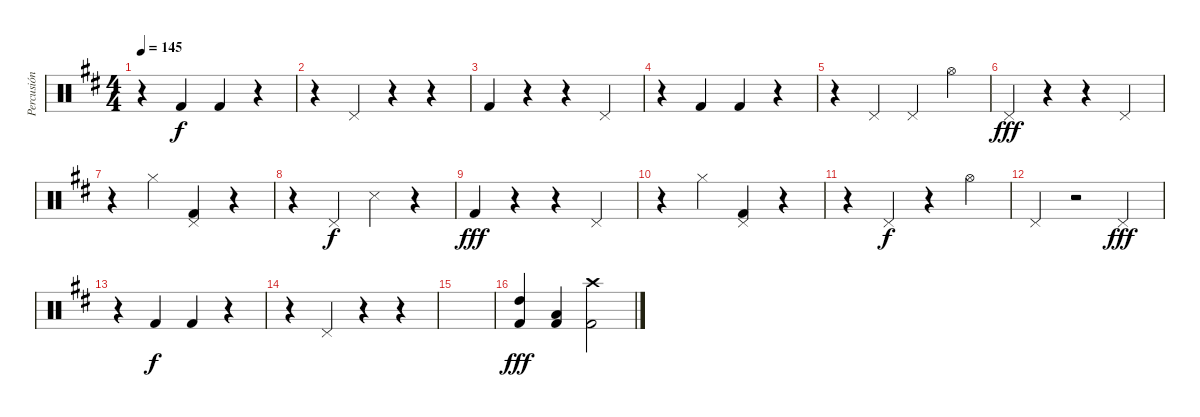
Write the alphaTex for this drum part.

\track ("Percusión" "Percusión") {instrument percussion}
\staff {score}
\articulation defaults
\ts (4 4)
\tempo 145
\clef neutral
\ks d
r.4{dy fff} "Kick (hit) 2".4{dy f} "Kick (hit) 2".4 r.4 |
r.4 "Pedal Hi-Hat (hit)".4 r.4 r.4 |
"Kick (hit) 2".4 r.4 r.4 "Pedal Hi-Hat (hit)".4 |
r.4 "Kick (hit) 2".4 "Kick (hit) 2".4 r.4 |
r.4 "Pedal Hi-Hat (hit)".4 "Pedal Hi-Hat (hit)".4 "Hi-Hat (open)".4 |
"Pedal Hi-Hat (hit)".4{dy fff} r.4 r.4 "Pedal Hi-Hat (hit)".4 |
r.4 "Hi-Hat (closed)".4 ("Pedal Hi-Hat (hit)" "Kick (hit) 2").4 r.4 |
r.4 "Pedal Hi-Hat (hit)".4{dy f} "Snare (side stick) 3".4 r.4 |
"Kick (hit) 2".4{dy fff} r.4 r.4 "Pedal Hi-Hat (hit)".4 |
r.4 "Hi-Hat (closed)".4 ("Pedal Hi-Hat (hit)" "Kick (hit) 2").4 r.4 |
r.4 "Pedal Hi-Hat (hit)".4{dy f} r.4 "Hi-Hat (open)".4 |
"Pedal Hi-Hat (hit)".4 r.2 "Pedal Hi-Hat (hit)".4{dy fff} |
r.4 "Kick (hit) 2".4{dy f} "Kick (hit) 2".4 r.4 |
r.4 "Pedal Hi-Hat (hit)".4 r.4 r.4 |
|
("High Tom (hit)" "Kick (hit) 2").4{dy fff} ("Low Tom (hit)" "Kick (hit) 2").4 ("Crash high (hit)" "Kick (hit) 2").2
